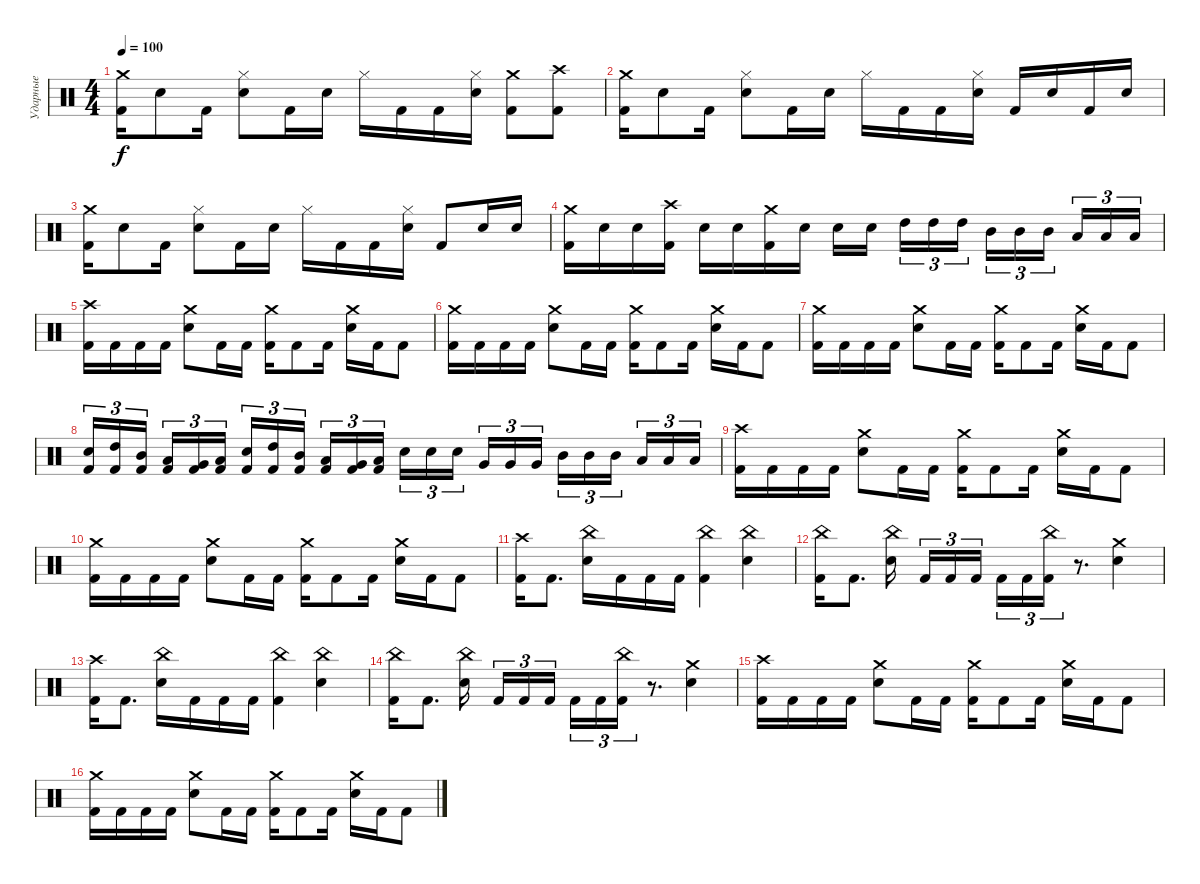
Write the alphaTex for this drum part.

\track ("Ударные" "Ударные") {instrument percussion}
\staff {score}
\articulation defaults
\ts (4 4)
\tempo 100
\clef neutral
\ks c
("Crash medium (hit)" "Kick (hit) 2").16{dy f} "Electric Snare (hit)".8 "Kick (hit) 2".16 ("Hi-Hat (closed)" "Electric Snare (hit)").8 "Kick (hit) 2".16 "Electric Snare (hit)".16 "Hi-Hat (closed)".16 "Kick (hit) 2".16 "Kick (hit) 2".16 ("Hi-Hat (closed)" "Electric Snare (hit)").16 ("Crash medium (hit)" "Kick (hit) 2").8 ("Crash high (hit)" "Kick (hit) 2").8 |
("Crash medium (hit)" "Kick (hit) 2").16 "Electric Snare (hit)".8 "Kick (hit) 2".16 ("Hi-Hat (closed)" "Electric Snare (hit)").8 "Kick (hit) 2".16 "Electric Snare (hit)".16 "Hi-Hat (closed)".16 "Kick (hit) 2".16 "Kick (hit) 2".16 ("Hi-Hat (closed)" "Electric Snare (hit)").16 "Kick (hit) 2".16 "Electric Snare (hit)".16 "Kick (hit) 2".16 "Electric Snare (hit)".16 |
("Crash medium (hit)" "Kick (hit) 2").16 "Electric Snare (hit)".8 "Kick (hit) 2".16 ("Hi-Hat (closed)" "Electric Snare (hit)").8 "Kick (hit) 2".16 "Electric Snare (hit)".16 "Hi-Hat (closed)".16 "Kick (hit) 2".16 "Kick (hit) 2".16 ("Hi-Hat (closed)" "Electric Snare (hit)").16 "Kick (hit) 2".8 "Electric Snare (hit)".16 "Electric Snare (hit)".16 |
("Crash medium (hit)" "Kick (hit) 2").16 "Electric Snare (hit)".16 "Electric Snare (hit)".16 ("Crash high (hit)" "Kick (hit) 2").16 "Electric Snare (hit)".16 "Electric Snare (hit)".16 ("Crash medium (hit)" "Kick (hit) 2").16 "Electric Snare (hit)".16 "Electric Snare (hit)".16 "Electric Snare (hit)".16{beam splitsecondary} "High Tom (hit)".16{tu (3 2)} "High Tom (hit)".16{tu (3 2)} "High Tom (hit)".16{tu (3 2)} "Mid Tom (hit)".16{tu (3 2)} "Mid Tom (hit)".16{tu (3 2)} "Mid Tom (hit)".16{tu (3 2) beam splitsecondary} "Low Tom (hit)".16{tu (3 2)} "Low Tom (hit)".16{tu (3 2)} "Low Tom (hit)".16{tu (3 2)} |
("Crash high (hit)" "Kick (hit) 2").16 "Kick (hit) 2".16 "Kick (hit) 2".16 "Kick (hit) 2".16 ("Crash medium (hit)" "Electric Snare (hit)").8 "Kick (hit) 2".16 "Kick (hit) 2".16 ("Crash medium (hit)" "Kick (hit) 2").16 "Kick (hit) 2".8 "Kick (hit) 2".16 ("Crash medium (hit)" "Electric Snare (hit)").16 "Kick (hit) 2".16 "Kick (hit) 2".8 |
("Crash medium (hit)" "Kick (hit) 2").16 "Kick (hit) 2".16 "Kick (hit) 2".16 "Kick (hit) 2".16 ("Crash medium (hit)" "Electric Snare (hit)").8 "Kick (hit) 2".16 "Kick (hit) 2".16 ("Crash medium (hit)" "Kick (hit) 2").16 "Kick (hit) 2".8 "Kick (hit) 2".16 ("Crash medium (hit)" "Electric Snare (hit)").16 "Kick (hit) 2".16 "Kick (hit) 2".8 |
("Crash medium (hit)" "Kick (hit) 2").16 "Kick (hit) 2".16 "Kick (hit) 2".16 "Kick (hit) 2".16 ("Crash medium (hit)" "Electric Snare (hit)").8 "Kick (hit) 2".16 "Kick (hit) 2".16 ("Crash medium (hit)" "Kick (hit) 2").16 "Kick (hit) 2".8 "Kick (hit) 2".16 ("Crash medium (hit)" "Electric Snare (hit)").16 "Kick (hit) 2".16 "Kick (hit) 2".8 |
("Electric Snare (hit)" "Kick (hit) 2").16{tu (3 2)} ("High Tom (hit)" "Kick (hit) 2").16{tu (3 2)} ("Mid Tom (hit)" "Kick (hit) 2").16{tu (3 2) beam splitsecondary} ("Low Tom (hit)" "Kick (hit) 2").16{tu (3 2)} ("Very Low Tom (hit)" "Kick (hit) 2").16{tu (3 2)} ("Low Floor Tom (hit)" "Kick (hit) 2").16{tu (3 2)} ("Electric Snare (hit)" "Kick (hit) 2").16{tu (3 2)} ("High Tom (hit)" "Kick (hit) 2").16{tu (3 2)} ("Mid Tom (hit)" "Kick (hit) 2").16{tu (3 2) beam splitsecondary} ("Low Tom (hit)" "Kick (hit) 2").16{tu (3 2)} ("Very Low Tom (hit)" "Kick (hit) 2").16{tu (3 2)} ("Low Floor Tom (hit)" "Kick (hit) 2").16{tu (3 2)} "Electric Snare (hit)".16{tu (3 2)} "Electric Snare (hit)".16{tu (3 2)} "Electric Snare (hit)".16{tu (3 2) beam splitsecondary} "Very Low Tom (hit)".16{tu (3 2)} "Very Low Tom (hit)".16{tu (3 2)} "Very Low Tom (hit)".16{tu (3 2)} "Mid Tom (hit)".16{tu (3 2)} "Mid Tom (hit)".16{tu (3 2)} "Mid Tom (hit)".16{tu (3 2) beam splitsecondary} "Low Tom (hit)".16{tu (3 2)} "Low Tom (hit)".16{tu (3 2)} "Low Tom (hit)".16{tu (3 2)} |
("Crash high (hit)" "Kick (hit) 2").16 "Kick (hit) 2".16 "Kick (hit) 2".16 "Kick (hit) 2".16 ("Crash medium (hit)" "Electric Snare (hit)").8 "Kick (hit) 2".16 "Kick (hit) 2".16 ("Crash medium (hit)" "Kick (hit) 2").16 "Kick (hit) 2".8 "Kick (hit) 2".16 ("Crash medium (hit)" "Electric Snare (hit)").16 "Kick (hit) 2".16 "Kick (hit) 2".8 |
("Crash medium (hit)" "Kick (hit) 2").16 "Kick (hit) 2".16 "Kick (hit) 2".16 "Kick (hit) 2".16 ("Crash medium (hit)" "Electric Snare (hit)").8 "Kick (hit) 2".16 "Kick (hit) 2".16 ("Crash medium (hit)" "Kick (hit) 2").16 "Kick (hit) 2".8 "Kick (hit) 2".16 ("Crash medium (hit)" "Electric Snare (hit)").16 "Kick (hit) 2".16 "Kick (hit) 2".8 |
("Crash high (hit)" "Kick (hit) 2").16 "Kick (hit) 2".8{d} ("China (hit)" "Electric Snare (hit)").16 "Kick (hit) 2".16 "Kick (hit) 2".16 "Kick (hit) 2".16 ("China (hit)" "Kick (hit) 2").4 ("China (hit)" "Electric Snare (hit)").4 |
("China (hit)" "Kick (hit) 2").16 "Kick (hit) 2".8{d} ("China (hit)" "Electric Snare (hit)").16{beam splitsecondary} "Kick (hit) 2".16{tu (3 2)} "Kick (hit) 2".16{tu (3 2)} "Kick (hit) 2".16{tu (3 2) beam splitsecondary} "Kick (hit) 2".16{tu (3 2)} "Kick (hit) 2".16{tu (3 2)} ("China (hit)" "Kick (hit) 2").16{tu (3 2)} r.8{d} ("Crash medium (hit)" "Electric Snare (hit)").4 |
("Crash high (hit)" "Kick (hit) 2").16 "Kick (hit) 2".8{d} ("China (hit)" "Electric Snare (hit)").16 "Kick (hit) 2".16 "Kick (hit) 2".16 "Kick (hit) 2".16 ("China (hit)" "Kick (hit) 2").4 ("China (hit)" "Electric Snare (hit)").4 |
("China (hit)" "Kick (hit) 2").16 "Kick (hit) 2".8{d} ("China (hit)" "Electric Snare (hit)").16{beam splitsecondary} "Kick (hit) 2".16{tu (3 2)} "Kick (hit) 2".16{tu (3 2)} "Kick (hit) 2".16{tu (3 2) beam splitsecondary} "Kick (hit) 2".16{tu (3 2)} "Kick (hit) 2".16{tu (3 2)} ("China (hit)" "Kick (hit) 2").16{tu (3 2)} r.8{d} ("Crash medium (hit)" "Electric Snare (hit)").4 |
("Crash high (hit)" "Kick (hit) 2").16 "Kick (hit) 2".16 "Kick (hit) 2".16 "Kick (hit) 2".16 ("Crash medium (hit)" "Electric Snare (hit)").8 "Kick (hit) 2".16 "Kick (hit) 2".16 ("Crash medium (hit)" "Kick (hit) 2").16 "Kick (hit) 2".8 "Kick (hit) 2".16 ("Crash medium (hit)" "Electric Snare (hit)").16 "Kick (hit) 2".16 "Kick (hit) 2".8 |
("Crash medium (hit)" "Kick (hit) 2").16 "Kick (hit) 2".16 "Kick (hit) 2".16 "Kick (hit) 2".16 ("Crash medium (hit)" "Electric Snare (hit)").8 "Kick (hit) 2".16 "Kick (hit) 2".16 ("Crash medium (hit)" "Kick (hit) 2").16 "Kick (hit) 2".8 "Kick (hit) 2".16 ("Crash medium (hit)" "Electric Snare (hit)").16 "Kick (hit) 2".16 "Kick (hit) 2".8
